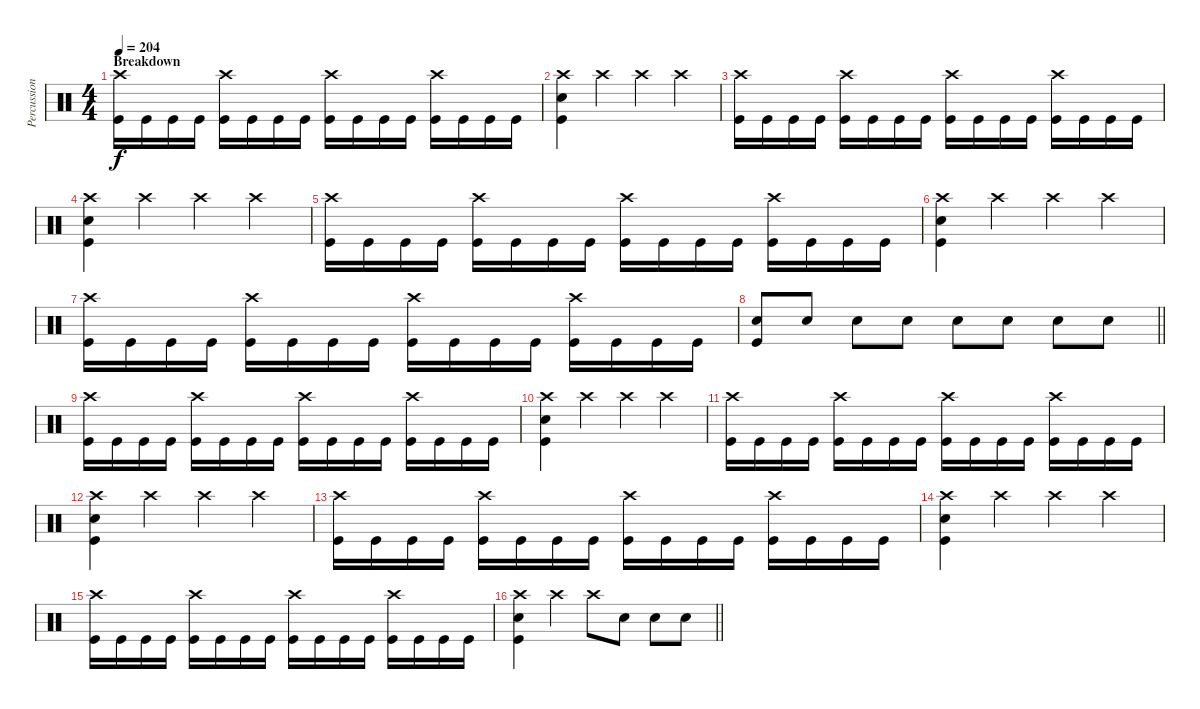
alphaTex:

\track ("Percussion" "Percussion") {instrument percussion}
\staff {score}
\articulation defaults
\ts (4 4)
\section ("" "Breakdown")
\tempo 204
\clef neutral
\ks c
("Crash high (hit)" "Kick (hit)").16{dy f} "Kick (hit)".16 "Kick (hit)".16 "Kick (hit)".16 ("Crash high (hit)" "Kick (hit)").16 "Kick (hit)".16 "Kick (hit)".16 "Kick (hit)".16 ("Crash high (hit)" "Kick (hit)").16 "Kick (hit)".16 "Kick (hit)".16 "Kick (hit)".16 ("Crash high (hit)" "Kick (hit)").16 "Kick (hit)".16 "Kick (hit)".16 "Kick (hit)".16 |
("Crash high (hit)" "Electric Snare (hit)" "Kick (hit)").4 "Crash high (hit)".4 "Crash high (hit)".4 "Crash high (hit)".4 |
("Crash high (hit)" "Kick (hit)").16 "Kick (hit)".16 "Kick (hit)".16 "Kick (hit)".16 ("Crash high (hit)" "Kick (hit)").16 "Kick (hit)".16 "Kick (hit)".16 "Kick (hit)".16 ("Crash high (hit)" "Kick (hit)").16 "Kick (hit)".16 "Kick (hit)".16 "Kick (hit)".16 ("Crash high (hit)" "Kick (hit)").16 "Kick (hit)".16 "Kick (hit)".16 "Kick (hit)".16 |
("Crash high (hit)" "Electric Snare (hit)" "Kick (hit)").4 "Crash high (hit)".4 "Crash high (hit)".4 "Crash high (hit)".4 |
("Crash high (hit)" "Kick (hit)").16 "Kick (hit)".16 "Kick (hit)".16 "Kick (hit)".16 ("Crash high (hit)" "Kick (hit)").16 "Kick (hit)".16 "Kick (hit)".16 "Kick (hit)".16 ("Crash high (hit)" "Kick (hit)").16 "Kick (hit)".16 "Kick (hit)".16 "Kick (hit)".16 ("Crash high (hit)" "Kick (hit)").16 "Kick (hit)".16 "Kick (hit)".16 "Kick (hit)".16 |
("Crash high (hit)" "Electric Snare (hit)" "Kick (hit)").4 "Crash high (hit)".4 "Crash high (hit)".4 "Crash high (hit)".4 |
("Crash high (hit)" "Kick (hit)").16 "Kick (hit)".16 "Kick (hit)".16 "Kick (hit)".16 ("Crash high (hit)" "Kick (hit)").16 "Kick (hit)".16 "Kick (hit)".16 "Kick (hit)".16 ("Crash high (hit)" "Kick (hit)").16 "Kick (hit)".16 "Kick (hit)".16 "Kick (hit)".16 ("Crash high (hit)" "Kick (hit)").16 "Kick (hit)".16 "Kick (hit)".16 "Kick (hit)".16 |
\barLineRight lightlight
("Electric Snare (hit)" "Kick (hit)").8 "Electric Snare (hit)".8 "Electric Snare (hit)".8 "Electric Snare (hit)".8 "Electric Snare (hit)".8 "Electric Snare (hit)".8 "Electric Snare (hit)".8 "Electric Snare (hit)".8 |
("Crash high (hit)" "Kick (hit)").16 "Kick (hit)".16 "Kick (hit)".16 "Kick (hit)".16 ("Crash high (hit)" "Kick (hit)").16 "Kick (hit)".16 "Kick (hit)".16 "Kick (hit)".16 ("Crash high (hit)" "Kick (hit)").16 "Kick (hit)".16 "Kick (hit)".16 "Kick (hit)".16 ("Crash high (hit)" "Kick (hit)").16 "Kick (hit)".16 "Kick (hit)".16 "Kick (hit)".16 |
("Crash high (hit)" "Electric Snare (hit)" "Kick (hit)").4 "Crash high (hit)".4 "Crash high (hit)".4 "Crash high (hit)".4 |
("Crash high (hit)" "Kick (hit)").16 "Kick (hit)".16 "Kick (hit)".16 "Kick (hit)".16 ("Crash high (hit)" "Kick (hit)").16 "Kick (hit)".16 "Kick (hit)".16 "Kick (hit)".16 ("Crash high (hit)" "Kick (hit)").16 "Kick (hit)".16 "Kick (hit)".16 "Kick (hit)".16 ("Crash high (hit)" "Kick (hit)").16 "Kick (hit)".16 "Kick (hit)".16 "Kick (hit)".16 |
("Crash high (hit)" "Electric Snare (hit)" "Kick (hit)").4 "Crash high (hit)".4 "Crash high (hit)".4 "Crash high (hit)".4 |
("Crash high (hit)" "Kick (hit)").16 "Kick (hit)".16 "Kick (hit)".16 "Kick (hit)".16 ("Crash high (hit)" "Kick (hit)").16 "Kick (hit)".16 "Kick (hit)".16 "Kick (hit)".16 ("Crash high (hit)" "Kick (hit)").16 "Kick (hit)".16 "Kick (hit)".16 "Kick (hit)".16 ("Crash high (hit)" "Kick (hit)").16 "Kick (hit)".16 "Kick (hit)".16 "Kick (hit)".16 |
("Crash high (hit)" "Electric Snare (hit)" "Kick (hit)").4 "Crash high (hit)".4 "Crash high (hit)".4 "Crash high (hit)".4 |
("Crash high (hit)" "Kick (hit)").16 "Kick (hit)".16 "Kick (hit)".16 "Kick (hit)".16 ("Crash high (hit)" "Kick (hit)").16 "Kick (hit)".16 "Kick (hit)".16 "Kick (hit)".16 ("Crash high (hit)" "Kick (hit)").16 "Kick (hit)".16 "Kick (hit)".16 "Kick (hit)".16 ("Crash high (hit)" "Kick (hit)").16 "Kick (hit)".16 "Kick (hit)".16 "Kick (hit)".16 |
\barLineRight lightlight
("Crash high (hit)" "Electric Snare (hit)" "Kick (hit)").4 "Crash high (hit)".4 "Crash high (hit)".8 "Electric Snare (hit)".8 "Electric Snare (hit)".8 "Electric Snare (hit)".8
